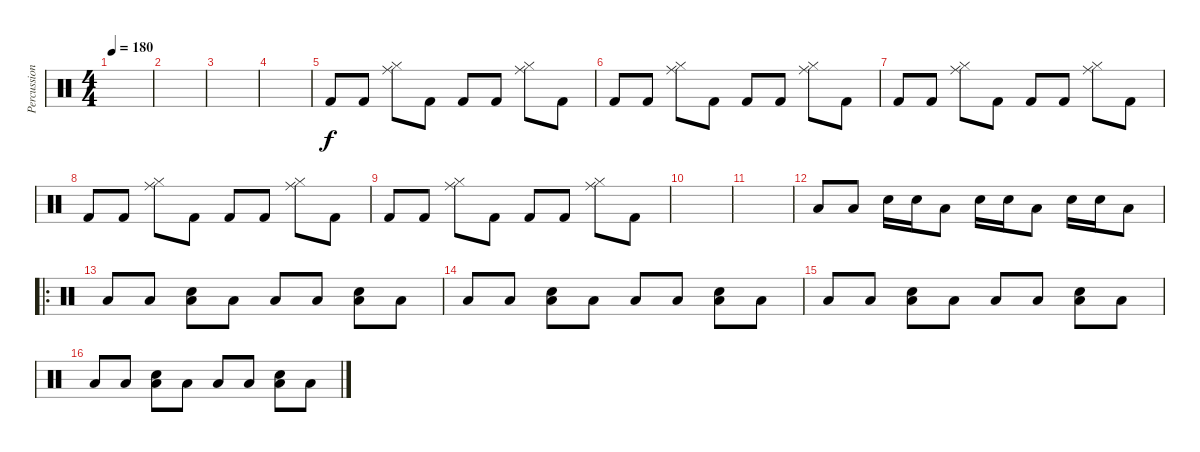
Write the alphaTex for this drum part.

\track ("Percussions" "Percussion") {instrument percussion}
\staff {score}
\articulation defaults
\ts (4 4)
\tempo 180
\clef neutral
\ks c
|
|
|
|
"Kick (hit) 2".8 "Kick (hit) 2".8 ("Hi-Hat (closed)" "Ride (middle)").8 "Kick (hit) 2".8 "Kick (hit) 2".8 "Kick (hit) 2".8 ("Hi-Hat (closed)" "Ride (middle)").8 "Kick (hit) 2".8 |
"Kick (hit) 2".8 "Kick (hit) 2".8 ("Hi-Hat (closed)" "Ride (middle)").8 "Kick (hit) 2".8 "Kick (hit) 2".8 "Kick (hit) 2".8 ("Hi-Hat (closed)" "Ride (middle)").8 "Kick (hit) 2".8 |
"Kick (hit) 2".8 "Kick (hit) 2".8 ("Hi-Hat (closed)" "Ride (middle)").8 "Kick (hit) 2".8 "Kick (hit) 2".8 "Kick (hit) 2".8 ("Hi-Hat (closed)" "Ride (middle)").8 "Kick (hit) 2".8 |
"Kick (hit) 2".8 "Kick (hit) 2".8 ("Hi-Hat (closed)" "Ride (middle)").8 "Kick (hit) 2".8 "Kick (hit) 2".8 "Kick (hit) 2".8 ("Hi-Hat (closed)" "Ride (middle)").8 "Kick (hit) 2".8 |
"Kick (hit) 2".8 "Kick (hit) 2".8 ("Hi-Hat (closed)" "Ride (middle)").8 "Kick (hit) 2".8 "Kick (hit) 2".8 "Kick (hit) 2".8 ("Hi-Hat (closed)" "Ride (middle)").8 "Kick (hit) 2".8 |
|
|
"Low Floor Tom (hit)".8 "Low Floor Tom (hit)".8 "Snare (hit) 2".16 "Snare (hit) 2".16 "Low Floor Tom (hit)".8 "Snare (hit) 2".16 "Snare (hit) 2".16 "Low Floor Tom (hit)".8 "Snare (hit) 2".16 "Snare (hit) 2".16 "Low Floor Tom (hit)".8 |
\ro "Low Floor Tom (hit)".8 "Low Floor Tom (hit)".8
("Snare (hit) 2" "Low Floor Tom (hit)").8 "Low Floor Tom (hit)".8 "Low Floor Tom (hit)".8 "Low Floor Tom (hit)".8 ("Snare (hit) 2" "Low Floor Tom (hit)").8 "Low Floor Tom (hit)".8 |
"Low Floor Tom (hit)".8 "Low Floor Tom (hit)".8 ("Snare (hit) 2" "Low Floor Tom (hit)").8 "Low Floor Tom (hit)".8 "Low Floor Tom (hit)".8 "Low Floor Tom (hit)".8 ("Snare (hit) 2" "Low Floor Tom (hit)").8 "Low Floor Tom (hit)".8 |
"Low Floor Tom (hit)".8 "Low Floor Tom (hit)".8 ("Snare (hit) 2" "Low Floor Tom (hit)").8 "Low Floor Tom (hit)".8 "Low Floor Tom (hit)".8 "Low Floor Tom (hit)".8 ("Snare (hit) 2" "Low Floor Tom (hit)").8 "Low Floor Tom (hit)".8 |
"Low Floor Tom (hit)".8 "Low Floor Tom (hit)".8 ("Snare (hit) 2" "Low Floor Tom (hit)").8 "Low Floor Tom (hit)".8 "Low Floor Tom (hit)".8 "Low Floor Tom (hit)".8 ("Snare (hit) 2" "Low Floor Tom (hit)").8 "Low Floor Tom (hit)".8
